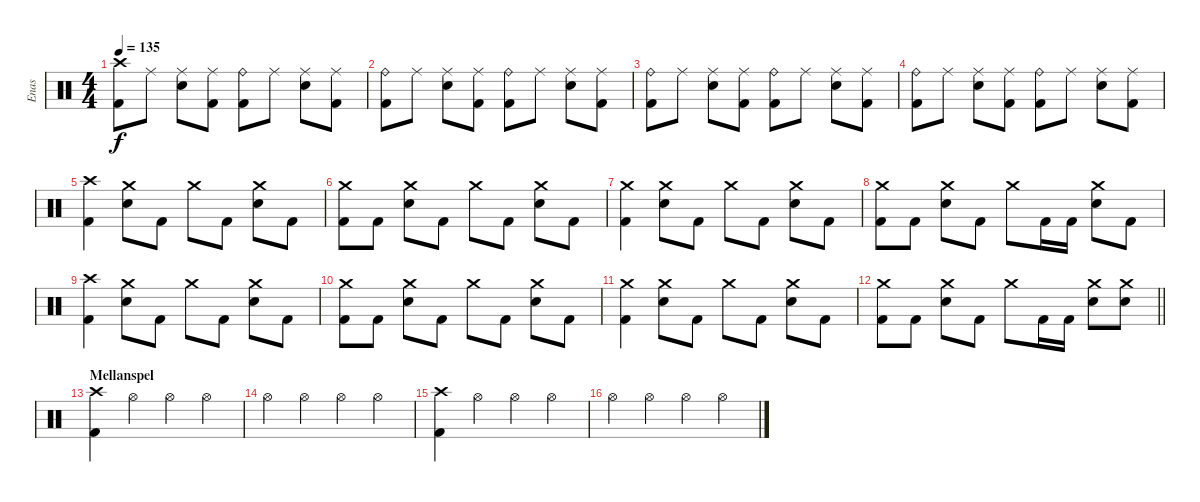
\track ("Enas" "Enas") {instrument percussion}
\staff {score}
\articulation defaults
\ts (4 4)
\tempo 135
\clef neutral
\ks c
("Crash high (hit)" "Kick (hit) 2").8{dy f} "Ride (middle)".8 ("Ride (middle)" "Snare (hit) 2").8 ("Ride (middle)" "Kick (hit) 2").8 ("Ride (bell)" "Kick (hit) 2").8 "Ride (middle)".8 ("Ride (middle)" "Snare (hit) 2").8 ("Ride (middle)" "Kick (hit) 2").8 |
("Ride (bell)" "Kick (hit) 2").8 "Ride (middle)".8 ("Ride (middle)" "Snare (hit) 2").8 ("Ride (middle)" "Kick (hit) 2").8 ("Ride (bell)" "Kick (hit) 2").8 "Ride (middle)".8 ("Ride (middle)" "Snare (hit) 2").8 ("Ride (middle)" "Kick (hit) 2").8 |
("Ride (bell)" "Kick (hit) 2").8 "Ride (middle)".8 ("Ride (middle)" "Snare (hit) 2").8 ("Ride (middle)" "Kick (hit) 2").8 ("Ride (bell)" "Kick (hit) 2").8 "Ride (middle)".8 ("Ride (middle)" "Snare (hit) 2").8 ("Ride (middle)" "Kick (hit) 2").8 |
("Ride (bell)" "Kick (hit) 2").8 "Ride (middle)".8 ("Ride (middle)" "Snare (hit) 2").8 ("Ride (middle)" "Kick (hit) 2").8 ("Ride (bell)" "Kick (hit) 2").8 "Ride (middle)".8 ("Ride (middle)" "Snare (hit) 2").8 ("Ride (middle)" "Kick (hit) 2").8 |
("Kick (hit) 2" "Crash high (hit)").4 ("Snare (hit) 2" "Crash medium (hit)").8 "Kick (hit) 2".8 "Crash medium (hit)".8 "Kick (hit) 2".8 ("Snare (hit) 2" "Crash medium (hit)").8 "Kick (hit) 2".8 |
("Kick (hit) 2" "Crash medium (hit)").8 "Kick (hit) 2".8 ("Snare (hit) 2" "Crash medium (hit)").8 "Kick (hit) 2".8 "Crash medium (hit)".8 "Kick (hit) 2".8 ("Snare (hit) 2" "Crash medium (hit)").8 "Kick (hit) 2".8 |
("Kick (hit) 2" "Crash medium (hit)").4 ("Snare (hit) 2" "Crash medium (hit)").8 "Kick (hit) 2".8 "Crash medium (hit)".8 "Kick (hit) 2".8 ("Snare (hit) 2" "Crash medium (hit)").8 "Kick (hit) 2".8 |
("Kick (hit) 2" "Crash medium (hit)").8 "Kick (hit) 2".8 ("Snare (hit) 2" "Crash medium (hit)").8 "Kick (hit) 2".8 "Crash medium (hit)".8 "Kick (hit) 2".16 "Kick (hit) 2".16 ("Snare (hit) 2" "Crash medium (hit)").8 "Kick (hit) 2".8 |
("Kick (hit) 2" "Crash high (hit)").4 ("Snare (hit) 2" "Crash medium (hit)").8 "Kick (hit) 2".8 "Crash medium (hit)".8 "Kick (hit) 2".8 ("Snare (hit) 2" "Crash medium (hit)").8 "Kick (hit) 2".8 |
("Kick (hit) 2" "Crash medium (hit)").8 "Kick (hit) 2".8 ("Snare (hit) 2" "Crash medium (hit)").8 "Kick (hit) 2".8 "Crash medium (hit)".8 "Kick (hit) 2".8 ("Snare (hit) 2" "Crash medium (hit)").8 "Kick (hit) 2".8 |
("Kick (hit) 2" "Crash medium (hit)").4 ("Snare (hit) 2" "Crash medium (hit)").8 "Kick (hit) 2".8 "Crash medium (hit)".8 "Kick (hit) 2".8 ("Snare (hit) 2" "Crash medium (hit)").8 "Kick (hit) 2".8 |
\barLineRight lightlight
("Kick (hit) 2" "Crash medium (hit)").8 "Kick (hit) 2".8 ("Snare (hit) 2" "Crash medium (hit)").8 "Kick (hit) 2".8 "Crash medium (hit)".8 "Kick (hit) 2".16 "Kick (hit) 2".16 ("Snare (hit) 2" "Crash medium (hit)").8 ("Snare (hit) 2" "Crash medium (hit)").8 |
\section ("" "Mellanspel")
("Crash high (hit)" "Kick (hit) 2").4 "Hi-Hat (open)".4 "Hi-Hat (open)".4 "Hi-Hat (open)".4 |
"Hi-Hat (open)".4 "Hi-Hat (open)".4 "Hi-Hat (open)".4 "Hi-Hat (open)".4 |
("Crash high (hit)" "Kick (hit) 2").4 "Hi-Hat (open)".4 "Hi-Hat (open)".4 "Hi-Hat (open)".4 |
"Hi-Hat (open)".4 "Hi-Hat (open)".4 "Hi-Hat (open)".4 "Hi-Hat (open)".4
